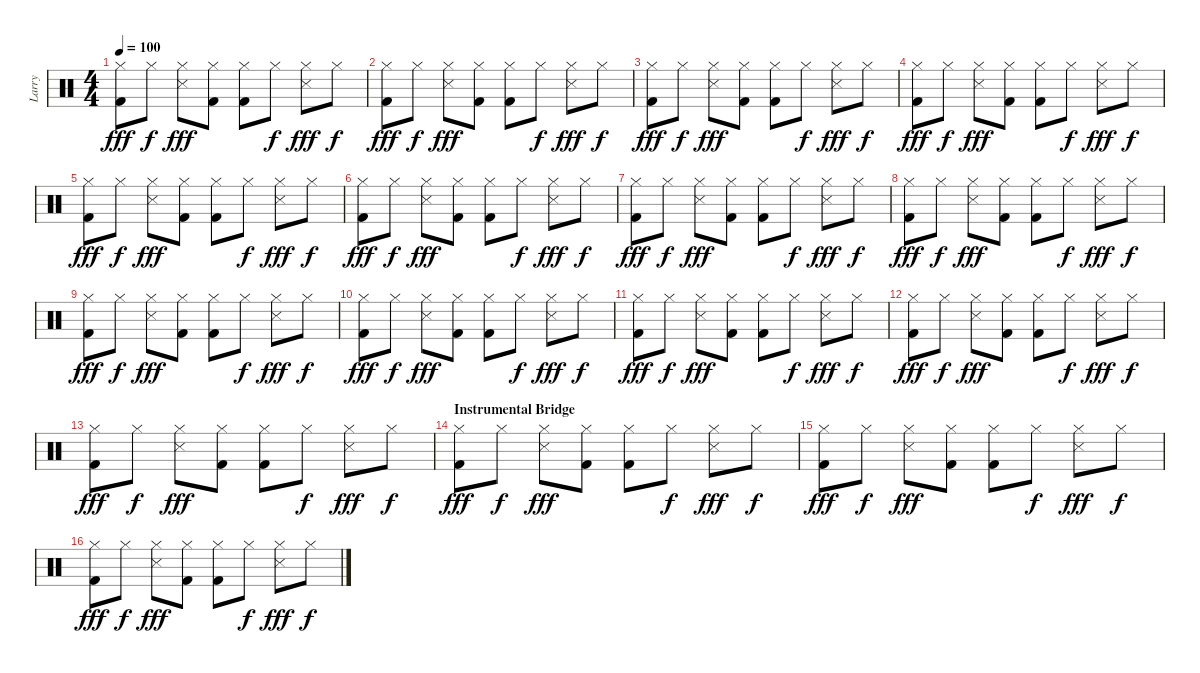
\track ("Larry" "Larry") {instrument percussion}
\staff {score}
\articulation defaults
\ts (4 4)
\tempo 100
\clef neutral
\ks c
("Kick (hit) 2" "Hi-Hat (closed)").8{dy fff} "Hi-Hat (closed)".8{dy f} ("Snare (side stick) 3" "Hi-Hat (closed)").8{dy fff} ("Kick (hit) 2" "Hi-Hat (closed)").8 ("Kick (hit) 2" "Hi-Hat (closed)").8 "Hi-Hat (closed)".8{dy f} ("Snare (side stick) 3" "Hi-Hat (closed)").8{dy fff} "Hi-Hat (closed)".8{dy f} |
("Kick (hit) 2" "Hi-Hat (closed)").8{dy fff} "Hi-Hat (closed)".8{dy f} ("Snare (side stick) 3" "Hi-Hat (closed)").8{dy fff} ("Kick (hit) 2" "Hi-Hat (closed)").8 ("Kick (hit) 2" "Hi-Hat (closed)").8 "Hi-Hat (closed)".8{dy f} ("Snare (side stick) 3" "Hi-Hat (closed)").8{dy fff} "Hi-Hat (closed)".8{dy f} |
("Hi-Hat (closed)" "Kick (hit) 2").8{dy fff} "Hi-Hat (closed)".8{dy f} ("Hi-Hat (closed)" "Snare (side stick) 3").8{dy fff} ("Hi-Hat (closed)" "Kick (hit) 2").8 ("Hi-Hat (closed)" "Kick (hit) 2").8 "Hi-Hat (closed)".8{dy f} ("Hi-Hat (closed)" "Snare (side stick) 3").8{dy fff} "Hi-Hat (closed)".8{dy f} |
("Hi-Hat (closed)" "Kick (hit) 2").8{dy fff} "Hi-Hat (closed)".8{dy f} ("Hi-Hat (closed)" "Snare (side stick) 3").8{dy fff} ("Hi-Hat (closed)" "Kick (hit) 2").8 ("Hi-Hat (closed)" "Kick (hit) 2").8 "Hi-Hat (closed)".8{dy f} ("Hi-Hat (closed)" "Snare (side stick) 3").8{dy fff} "Hi-Hat (closed)".8{dy f} |
("Kick (hit) 2" "Hi-Hat (closed)").8{dy fff} "Hi-Hat (closed)".8{dy f} ("Snare (side stick) 3" "Hi-Hat (closed)").8{dy fff} ("Kick (hit) 2" "Hi-Hat (closed)").8 ("Kick (hit) 2" "Hi-Hat (closed)").8 "Hi-Hat (closed)".8{dy f} ("Snare (side stick) 3" "Hi-Hat (closed)").8{dy fff} "Hi-Hat (closed)".8{dy f} |
("Kick (hit) 2" "Hi-Hat (closed)").8{dy fff} "Hi-Hat (closed)".8{dy f} ("Snare (side stick) 3" "Hi-Hat (closed)").8{dy fff} ("Kick (hit) 2" "Hi-Hat (closed)").8 ("Kick (hit) 2" "Hi-Hat (closed)").8 "Hi-Hat (closed)".8{dy f} ("Snare (side stick) 3" "Hi-Hat (closed)").8{dy fff} "Hi-Hat (closed)".8{dy f} |
("Kick (hit) 2" "Hi-Hat (closed)").8{dy fff} "Hi-Hat (closed)".8{dy f} ("Snare (side stick) 3" "Hi-Hat (closed)").8{dy fff} ("Kick (hit) 2" "Hi-Hat (closed)").8 ("Kick (hit) 2" "Hi-Hat (closed)").8 "Hi-Hat (closed)".8{dy f} ("Snare (side stick) 3" "Hi-Hat (closed)").8{dy fff} "Hi-Hat (closed)".8{dy f} |
("Hi-Hat (closed)" "Kick (hit) 2").8{dy fff} "Hi-Hat (closed)".8{dy f} ("Hi-Hat (closed)" "Snare (side stick) 3").8{dy fff} ("Hi-Hat (closed)" "Kick (hit) 2").8 ("Hi-Hat (closed)" "Kick (hit) 2").8 "Hi-Hat (closed)".8{dy f} ("Hi-Hat (closed)" "Snare (side stick) 3").8{dy fff} "Hi-Hat (closed)".8{dy f} |
("Hi-Hat (closed)" "Kick (hit) 2").8{dy fff} "Hi-Hat (closed)".8{dy f} ("Hi-Hat (closed)" "Snare (side stick) 3").8{dy fff} ("Hi-Hat (closed)" "Kick (hit) 2").8 ("Hi-Hat (closed)" "Kick (hit) 2").8 "Hi-Hat (closed)".8{dy f} ("Hi-Hat (closed)" "Snare (side stick) 3").8{dy fff} "Hi-Hat (closed)".8{dy f} |
("Kick (hit) 2" "Hi-Hat (closed)").8{dy fff} "Hi-Hat (closed)".8{dy f} ("Snare (side stick) 3" "Hi-Hat (closed)").8{dy fff} ("Kick (hit) 2" "Hi-Hat (closed)").8 ("Kick (hit) 2" "Hi-Hat (closed)").8 "Hi-Hat (closed)".8{dy f} ("Snare (side stick) 3" "Hi-Hat (closed)").8{dy fff} "Hi-Hat (closed)".8{dy f} |
("Kick (hit) 2" "Hi-Hat (closed)").8{dy fff} "Hi-Hat (closed)".8{dy f} ("Snare (side stick) 3" "Hi-Hat (closed)").8{dy fff} ("Kick (hit) 2" "Hi-Hat (closed)").8 ("Kick (hit) 2" "Hi-Hat (closed)").8 "Hi-Hat (closed)".8{dy f} ("Snare (side stick) 3" "Hi-Hat (closed)").8{dy fff} "Hi-Hat (closed)".8{dy f} |
("Hi-Hat (closed)" "Kick (hit) 2").8{dy fff} "Hi-Hat (closed)".8{dy f} ("Hi-Hat (closed)" "Snare (side stick) 3").8{dy fff} ("Hi-Hat (closed)" "Kick (hit) 2").8 ("Hi-Hat (closed)" "Kick (hit) 2").8 "Hi-Hat (closed)".8{dy f} ("Hi-Hat (closed)" "Snare (side stick) 3").8{dy fff} "Hi-Hat (closed)".8{dy f} |
("Kick (hit) 2" "Hi-Hat (closed)").8{dy fff} "Hi-Hat (closed)".8{dy f} ("Snare (side stick) 3" "Hi-Hat (closed)").8{dy fff} ("Kick (hit) 2" "Hi-Hat (closed)").8 ("Kick (hit) 2" "Hi-Hat (closed)").8 "Hi-Hat (closed)".8{dy f} ("Snare (side stick) 3" "Hi-Hat (closed)").8{dy fff} "Hi-Hat (closed)".8{dy f} |
\section ("" "Instrumental Bridge")
("Kick (hit) 2" "Hi-Hat (closed)").8{dy fff} "Hi-Hat (closed)".8{dy f} ("Snare (side stick) 3" "Hi-Hat (closed)").8{dy fff} ("Kick (hit) 2" "Hi-Hat (closed)").8 ("Kick (hit) 2" "Hi-Hat (closed)").8 "Hi-Hat (closed)".8{dy f} ("Snare (side stick) 3" "Hi-Hat (closed)").8{dy fff} "Hi-Hat (closed)".8{dy f} |
("Hi-Hat (closed)" "Kick (hit) 2").8{dy fff} "Hi-Hat (closed)".8{dy f} ("Hi-Hat (closed)" "Snare (side stick) 3").8{dy fff} ("Hi-Hat (closed)" "Kick (hit) 2").8 ("Hi-Hat (closed)" "Kick (hit) 2").8 "Hi-Hat (closed)".8{dy f} ("Hi-Hat (closed)" "Snare (side stick) 3").8{dy fff} "Hi-Hat (closed)".8{dy f} |
("Hi-Hat (closed)" "Kick (hit) 2").8{dy fff} "Hi-Hat (closed)".8{dy f} ("Hi-Hat (closed)" "Snare (side stick) 3").8{dy fff} ("Hi-Hat (closed)" "Kick (hit) 2").8 ("Hi-Hat (closed)" "Kick (hit) 2").8 "Hi-Hat (closed)".8{dy f} ("Hi-Hat (closed)" "Snare (side stick) 3").8{dy fff} "Hi-Hat (closed)".8{dy f}
